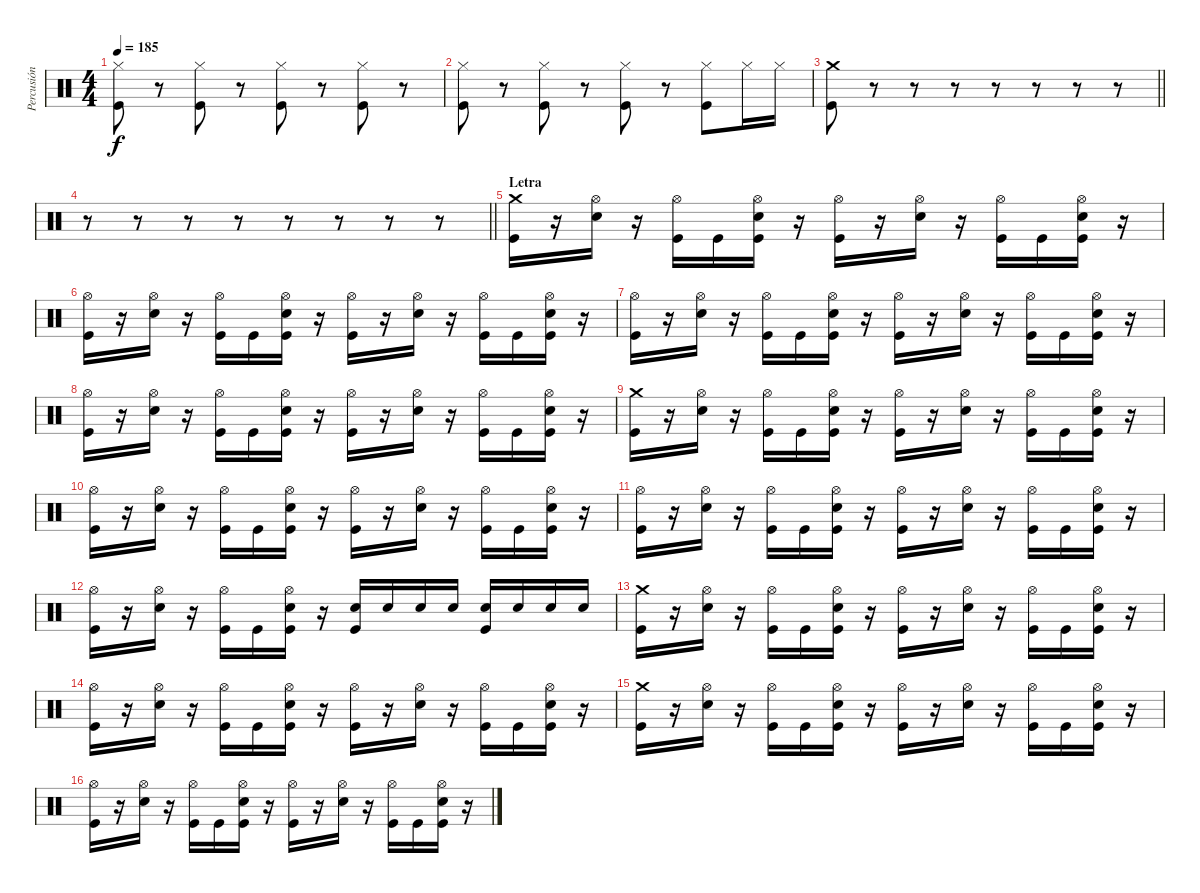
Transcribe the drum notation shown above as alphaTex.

\track ("Percusión" "Percusión") {instrument percussion}
\staff {score}
\articulation defaults
\ts (4 4)
\tempo 185
\clef neutral
\ks c
("Hi-Hat (closed)" "Kick (hit)").8{dy f} r.8 ("Hi-Hat (closed)" "Kick (hit)").8 r.8 ("Hi-Hat (closed)" "Kick (hit)").8 r.8 ("Hi-Hat (closed)" "Kick (hit)").8 r.8 |
("Hi-Hat (closed)" "Kick (hit)").8 r.8 ("Hi-Hat (closed)" "Kick (hit)").8 r.8 ("Hi-Hat (closed)" "Kick (hit)").8 r.8 ("Hi-Hat (closed)" "Kick (hit)").8 "Hi-Hat (closed)".16 "Hi-Hat (closed)".16 |
\barLineRight lightlight
("Crash medium (hit)" "Kick (hit)").8 r.8 r.8 r.8 r.8 r.8 r.8 r.8 |
\barLineRight lightlight
r.8 r.8 r.8 r.8 r.8 r.8 r.8 r.8 |
\section ("" "Letra")
("Crash medium (hit)" "Kick (hit)").16 r.16 ("Hi-Hat (open)" "Electric Snare (hit)").16 r.16 ("Hi-Hat (open)" "Kick (hit)").16 "Kick (hit)".16 ("Hi-Hat (open)" "Electric Snare (hit)" "Kick (hit)").16 r.16 ("Hi-Hat (open)" "Kick (hit)").16 r.16 ("Hi-Hat (open)" "Electric Snare (hit)").16 r.16 ("Hi-Hat (open)" "Kick (hit)").16 "Kick (hit)".16 ("Hi-Hat (open)" "Electric Snare (hit)" "Kick (hit)").16 r.16 |
("Hi-Hat (open)" "Kick (hit)").16 r.16 ("Hi-Hat (open)" "Electric Snare (hit)").16 r.16 ("Hi-Hat (open)" "Kick (hit)").16 "Kick (hit)".16 ("Hi-Hat (open)" "Electric Snare (hit)" "Kick (hit)").16 r.16 ("Hi-Hat (open)" "Kick (hit)").16 r.16 ("Hi-Hat (open)" "Electric Snare (hit)").16 r.16 ("Hi-Hat (open)" "Kick (hit)").16 "Kick (hit)".16 ("Hi-Hat (open)" "Electric Snare (hit)" "Kick (hit)").16 r.16 |
("Hi-Hat (open)" "Kick (hit)").16 r.16 ("Hi-Hat (open)" "Electric Snare (hit)").16 r.16 ("Hi-Hat (open)" "Kick (hit)").16 "Kick (hit)".16 ("Hi-Hat (open)" "Electric Snare (hit)" "Kick (hit)").16 r.16 ("Hi-Hat (open)" "Kick (hit)").16 r.16 ("Hi-Hat (open)" "Electric Snare (hit)").16 r.16 ("Hi-Hat (open)" "Kick (hit)").16 "Kick (hit)".16 ("Hi-Hat (open)" "Electric Snare (hit)" "Kick (hit)").16 r.16 |
("Hi-Hat (open)" "Kick (hit)").16 r.16 ("Hi-Hat (open)" "Electric Snare (hit)").16 r.16 ("Hi-Hat (open)" "Kick (hit)").16 "Kick (hit)".16 ("Hi-Hat (open)" "Electric Snare (hit)" "Kick (hit)").16 r.16 ("Hi-Hat (open)" "Kick (hit)").16 r.16 ("Hi-Hat (open)" "Electric Snare (hit)").16 r.16 ("Hi-Hat (open)" "Kick (hit)").16 "Kick (hit)".16 ("Hi-Hat (open)" "Electric Snare (hit)" "Kick (hit)").16 r.16 |
("Crash medium (hit)" "Kick (hit)").16 r.16 ("Hi-Hat (open)" "Electric Snare (hit)").16 r.16 ("Hi-Hat (open)" "Kick (hit)").16 "Kick (hit)".16 ("Hi-Hat (open)" "Electric Snare (hit)" "Kick (hit)").16 r.16 ("Hi-Hat (open)" "Kick (hit)").16 r.16 ("Hi-Hat (open)" "Electric Snare (hit)").16 r.16 ("Hi-Hat (open)" "Kick (hit)").16 "Kick (hit)".16 ("Hi-Hat (open)" "Electric Snare (hit)" "Kick (hit)").16 r.16 |
("Hi-Hat (open)" "Kick (hit)").16 r.16 ("Hi-Hat (open)" "Electric Snare (hit)").16 r.16 ("Hi-Hat (open)" "Kick (hit)").16 "Kick (hit)".16 ("Hi-Hat (open)" "Electric Snare (hit)" "Kick (hit)").16 r.16 ("Hi-Hat (open)" "Kick (hit)").16 r.16 ("Hi-Hat (open)" "Electric Snare (hit)").16 r.16 ("Hi-Hat (open)" "Kick (hit)").16 "Kick (hit)".16 ("Hi-Hat (open)" "Electric Snare (hit)" "Kick (hit)").16 r.16 |
("Hi-Hat (open)" "Kick (hit)").16 r.16 ("Hi-Hat (open)" "Electric Snare (hit)").16 r.16 ("Hi-Hat (open)" "Kick (hit)").16 "Kick (hit)".16 ("Hi-Hat (open)" "Electric Snare (hit)" "Kick (hit)").16 r.16 ("Hi-Hat (open)" "Kick (hit)").16 r.16 ("Hi-Hat (open)" "Electric Snare (hit)").16 r.16 ("Hi-Hat (open)" "Kick (hit)").16 "Kick (hit)".16 ("Hi-Hat (open)" "Electric Snare (hit)" "Kick (hit)").16 r.16 |
("Hi-Hat (open)" "Kick (hit)").16 r.16 ("Hi-Hat (open)" "Electric Snare (hit)").16 r.16 ("Hi-Hat (open)" "Kick (hit)").16 "Kick (hit)".16 ("Hi-Hat (open)" "Electric Snare (hit)" "Kick (hit)").16 r.16 ("Electric Snare (hit)" "Kick (hit)").16 "Electric Snare (hit)".16 "Electric Snare (hit)".16 "Electric Snare (hit)".16 ("Electric Snare (hit)" "Kick (hit)").16 "Electric Snare (hit)".16 "Electric Snare (hit)".16 "Electric Snare (hit)".16 |
("Crash medium (hit)" "Kick (hit)").16 r.16 ("Hi-Hat (open)" "Electric Snare (hit)").16 r.16 ("Hi-Hat (open)" "Kick (hit)").16 "Kick (hit)".16 ("Hi-Hat (open)" "Electric Snare (hit)" "Kick (hit)").16 r.16 ("Hi-Hat (open)" "Kick (hit)").16 r.16 ("Hi-Hat (open)" "Electric Snare (hit)").16 r.16 ("Hi-Hat (open)" "Kick (hit)").16 "Kick (hit)".16 ("Hi-Hat (open)" "Electric Snare (hit)" "Kick (hit)").16 r.16 |
("Hi-Hat (open)" "Kick (hit)").16 r.16 ("Hi-Hat (open)" "Electric Snare (hit)").16 r.16 ("Hi-Hat (open)" "Kick (hit)").16 "Kick (hit)".16 ("Hi-Hat (open)" "Electric Snare (hit)" "Kick (hit)").16 r.16 ("Hi-Hat (open)" "Kick (hit)").16 r.16 ("Hi-Hat (open)" "Electric Snare (hit)").16 r.16 ("Hi-Hat (open)" "Kick (hit)").16 "Kick (hit)".16 ("Hi-Hat (open)" "Electric Snare (hit)" "Kick (hit)").16 r.16 |
("Crash medium (hit)" "Kick (hit)").16 r.16 ("Hi-Hat (open)" "Electric Snare (hit)").16 r.16 ("Hi-Hat (open)" "Kick (hit)").16 "Kick (hit)".16 ("Hi-Hat (open)" "Electric Snare (hit)" "Kick (hit)").16 r.16 ("Hi-Hat (open)" "Kick (hit)").16 r.16 ("Hi-Hat (open)" "Electric Snare (hit)").16 r.16 ("Hi-Hat (open)" "Kick (hit)").16 "Kick (hit)".16 ("Hi-Hat (open)" "Electric Snare (hit)" "Kick (hit)").16 r.16 |
("Hi-Hat (open)" "Kick (hit)").16 r.16 ("Hi-Hat (open)" "Electric Snare (hit)").16 r.16 ("Hi-Hat (open)" "Kick (hit)").16 "Kick (hit)".16 ("Hi-Hat (open)" "Electric Snare (hit)" "Kick (hit)").16 r.16 ("Hi-Hat (open)" "Kick (hit)").16 r.16 ("Hi-Hat (open)" "Electric Snare (hit)").16 r.16 ("Hi-Hat (open)" "Kick (hit)").16 "Kick (hit)".16 ("Hi-Hat (open)" "Electric Snare (hit)" "Kick (hit)").16 r.16
